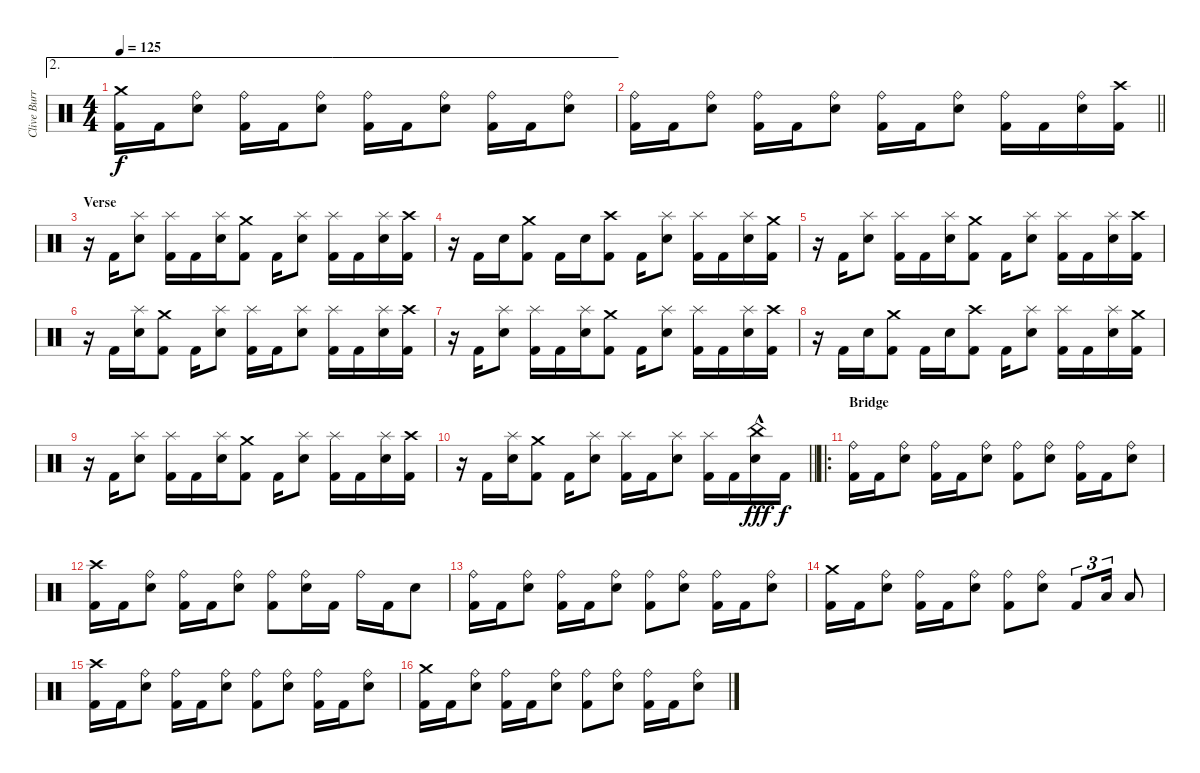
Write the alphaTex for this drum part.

\track ("Clive Burr" "Clive Burr") {instrument percussion}
\staff {score}
\articulation defaults
\ae 2
\ts (4 4)
\tempo 125
\clef neutral
\ks c
("Crash medium (hit)" "Kick (hit) 2").16{dy f} "Kick (hit) 2".16 ("Ride (bell)" "Snare (hit) 2").8 ("Ride (bell)" "Kick (hit) 2").16 "Kick (hit) 2".16 ("Ride (bell)" "Snare (hit) 2").8 ("Ride (bell)" "Kick (hit) 2").16 "Kick (hit) 2".16 ("Ride (bell)" "Snare (hit) 2").8 ("Ride (bell)" "Kick (hit) 2").16 "Kick (hit) 2".16 ("Ride (bell)" "Snare (hit) 2").8 |
\barLineRight lightlight
("Ride (bell)" "Kick (hit) 2").16 "Kick (hit) 2".16 ("Ride (bell)" "Snare (hit) 2").8 ("Ride (bell)" "Kick (hit) 2").16 "Kick (hit) 2".16 ("Ride (bell)" "Snare (hit) 2").8 ("Ride (bell)" "Kick (hit) 2").16 "Kick (hit) 2".16 ("Ride (bell)" "Snare (hit) 2").8 ("Ride (bell)" "Kick (hit) 2").16 "Kick (hit) 2".16 ("Ride (bell)" "Snare (hit) 2").16 ("Crash high (hit)" "Kick (hit) 2").16 |
\section ("" "Verse")
r.16 "Kick (hit) 2".16 ("Splash (hit)" "Snare (hit) 2").8 ("Splash (hit)" "Kick (hit) 2").16 "Kick (hit) 2".16 ("Splash (hit)" "Snare (hit) 2").16 ("Crash medium (hit)" "Kick (hit) 2").8 "Kick (hit) 2".16 ("Splash (hit)" "Snare (hit) 2").8 ("Splash (hit)" "Kick (hit) 2").16 "Kick (hit) 2".16 ("Splash (hit)" "Snare (hit) 2").16 ("Crash high (hit)" "Kick (hit) 2").16 |
r.16 "Kick (hit) 2".16 "Snare (hit) 2".16 ("Crash medium (hit)" "Kick (hit) 2").8 "Kick (hit) 2".16 "Snare (hit) 2".16 ("Crash high (hit)" "Kick (hit) 2").8 "Kick (hit) 2".16 ("Splash (hit)" "Snare (hit) 2").8 ("Splash (hit)" "Kick (hit) 2").16 "Kick (hit) 2".16 ("Splash (hit)" "Snare (hit) 2").16 ("Crash medium (hit)" "Kick (hit) 2").16 |
r.16 "Kick (hit) 2".16 ("Splash (hit)" "Snare (hit) 2").8 ("Splash (hit)" "Kick (hit) 2").16 "Kick (hit) 2".16 ("Splash (hit)" "Snare (hit) 2").16 ("Crash medium (hit)" "Kick (hit) 2").8 "Kick (hit) 2".16 ("Splash (hit)" "Snare (hit) 2").8 ("Splash (hit)" "Kick (hit) 2").16 "Kick (hit) 2".16 ("Splash (hit)" "Snare (hit) 2").16 ("Crash high (hit)" "Kick (hit) 2").16 |
r.16 "Kick (hit) 2".16 ("Splash (hit)" "Snare (hit) 2").16 ("Crash medium (hit)" "Kick (hit) 2").8 "Kick (hit) 2".16 ("Splash (hit)" "Snare (hit) 2").8 ("Splash (hit)" "Kick (hit) 2").16 "Kick (hit) 2".16 ("Splash (hit)" "Snare (hit) 2").8 ("Splash (hit)" "Kick (hit) 2").16 "Kick (hit) 2".16 ("Splash (hit)" "Snare (hit) 2").16 ("Crash high (hit)" "Kick (hit) 2").16 |
r.16 "Kick (hit) 2".16 ("Splash (hit)" "Snare (hit) 2").8 ("Splash (hit)" "Kick (hit) 2").16 "Kick (hit) 2".16 ("Splash (hit)" "Snare (hit) 2").16 ("Crash medium (hit)" "Kick (hit) 2").8 "Kick (hit) 2".16 ("Splash (hit)" "Snare (hit) 2").8 ("Splash (hit)" "Kick (hit) 2").16 "Kick (hit) 2".16 ("Splash (hit)" "Snare (hit) 2").16 ("Crash high (hit)" "Kick (hit) 2").16 |
r.16 "Kick (hit) 2".16 "Snare (hit) 2".16 ("Crash medium (hit)" "Kick (hit) 2").8 "Kick (hit) 2".16 "Snare (hit) 2".16 ("Crash high (hit)" "Kick (hit) 2").8 "Kick (hit) 2".16 ("Splash (hit)" "Snare (hit) 2").8 ("Splash (hit)" "Kick (hit) 2").16 "Kick (hit) 2".16 ("Splash (hit)" "Snare (hit) 2").16 ("Crash medium (hit)" "Kick (hit) 2").16 |
r.16 "Kick (hit) 2".16 ("Splash (hit)" "Snare (hit) 2").8 ("Splash (hit)" "Kick (hit) 2").16 "Kick (hit) 2".16 ("Splash (hit)" "Snare (hit) 2").16 ("Crash medium (hit)" "Kick (hit) 2").8 "Kick (hit) 2".16 ("Splash (hit)" "Snare (hit) 2").8 ("Splash (hit)" "Kick (hit) 2").16 "Kick (hit) 2".16 ("Splash (hit)" "Snare (hit) 2").16 ("Crash high (hit)" "Kick (hit) 2").16 |
\barLineRight lightlight
r.16 "Kick (hit) 2".16 ("Splash (hit)" "Snare (hit) 2").16 ("Crash medium (hit)" "Kick (hit) 2").8 "Kick (hit) 2".16 ("Splash (hit)" "Snare (hit) 2").8 ("Splash (hit)" "Kick (hit) 2").16 "Kick (hit) 2".16 ("Splash (hit)" "Snare (hit) 2").8 ("Splash (hit)" "Kick (hit) 2").16 "Kick (hit) 2".16 ("China (hit)"{hac} "Snare (hit) 2").16{dy fff} "Kick (hit) 2".16{dy f} |
\ro
\section ("" "Bridge")
("Ride (bell)" "Kick (hit) 2").16 "Kick (hit) 2".16 ("Ride (bell)" "Snare (hit) 2").8 ("Ride (bell)" "Kick (hit) 2").16 "Kick (hit) 2".16 ("Ride (bell)" "Snare (hit) 2").8 ("Ride (bell)" "Kick (hit) 2").8 ("Ride (bell)" "Snare (hit) 2").8 ("Ride (bell)" "Kick (hit) 2").16 "Kick (hit) 2".16 ("Ride (bell)" "Snare (hit) 2").8 |
("Crash high (hit)" "Kick (hit) 2").16 "Kick (hit) 2".16 ("Ride (bell)" "Snare (hit) 2").8 ("Ride (bell)" "Kick (hit) 2").16 "Kick (hit) 2".16 ("Ride (bell)" "Snare (hit) 2").8 ("Ride (bell)" "Kick (hit) 2").8 ("Ride (bell)" "Snare (hit) 2").16 "Kick (hit) 2".16 "Ride (bell)".16 "Kick (hit) 2".16 "Snare (hit) 2".8 |
("Ride (bell)" "Kick (hit) 2").16 "Kick (hit) 2".16 ("Ride (bell)" "Snare (hit) 2").8 ("Ride (bell)" "Kick (hit) 2").16 "Kick (hit) 2".16 ("Ride (bell)" "Snare (hit) 2").8 ("Ride (bell)" "Kick (hit) 2").8 ("Ride (bell)" "Snare (hit) 2").8 ("Ride (bell)" "Kick (hit) 2").16 "Kick (hit) 2".16 ("Ride (bell)" "Snare (hit) 2").8 |
("Crash medium (hit)" "Kick (hit) 2").16 "Kick (hit) 2".16 ("Ride (bell)" "Snare (hit) 2").8 ("Ride (bell)" "Kick (hit) 2").16 "Kick (hit) 2".16 ("Ride (bell)" "Snare (hit) 2").8 ("Ride (bell)" "Kick (hit) 2").8 ("Ride (bell)" "Snare (hit) 2").8 "Kick (hit) 2".8{tu (3 2)} "Low Tom (hit)".16{tu (3 2)} "Low Tom (hit)".8 |
("Crash high (hit)" "Kick (hit) 2").16 "Kick (hit) 2".16 ("Ride (bell)" "Snare (hit) 2").8 ("Ride (bell)" "Kick (hit) 2").16 "Kick (hit) 2".16 ("Ride (bell)" "Snare (hit) 2").8 ("Ride (bell)" "Kick (hit) 2").8 ("Ride (bell)" "Snare (hit) 2").8 ("Ride (bell)" "Kick (hit) 2").16 "Kick (hit) 2".16 ("Ride (bell)" "Snare (hit) 2").8 |
("Crash medium (hit)" "Kick (hit) 2").16 "Kick (hit) 2".16 ("Ride (bell)" "Snare (hit) 2").8 ("Ride (bell)" "Kick (hit) 2").16 "Kick (hit) 2".16 ("Ride (bell)" "Snare (hit) 2").8 ("Ride (bell)" "Kick (hit) 2").8 ("Ride (bell)" "Snare (hit) 2").8 ("Ride (bell)" "Kick (hit) 2").16 "Kick (hit) 2".16 ("Ride (bell)" "Snare (hit) 2").8
